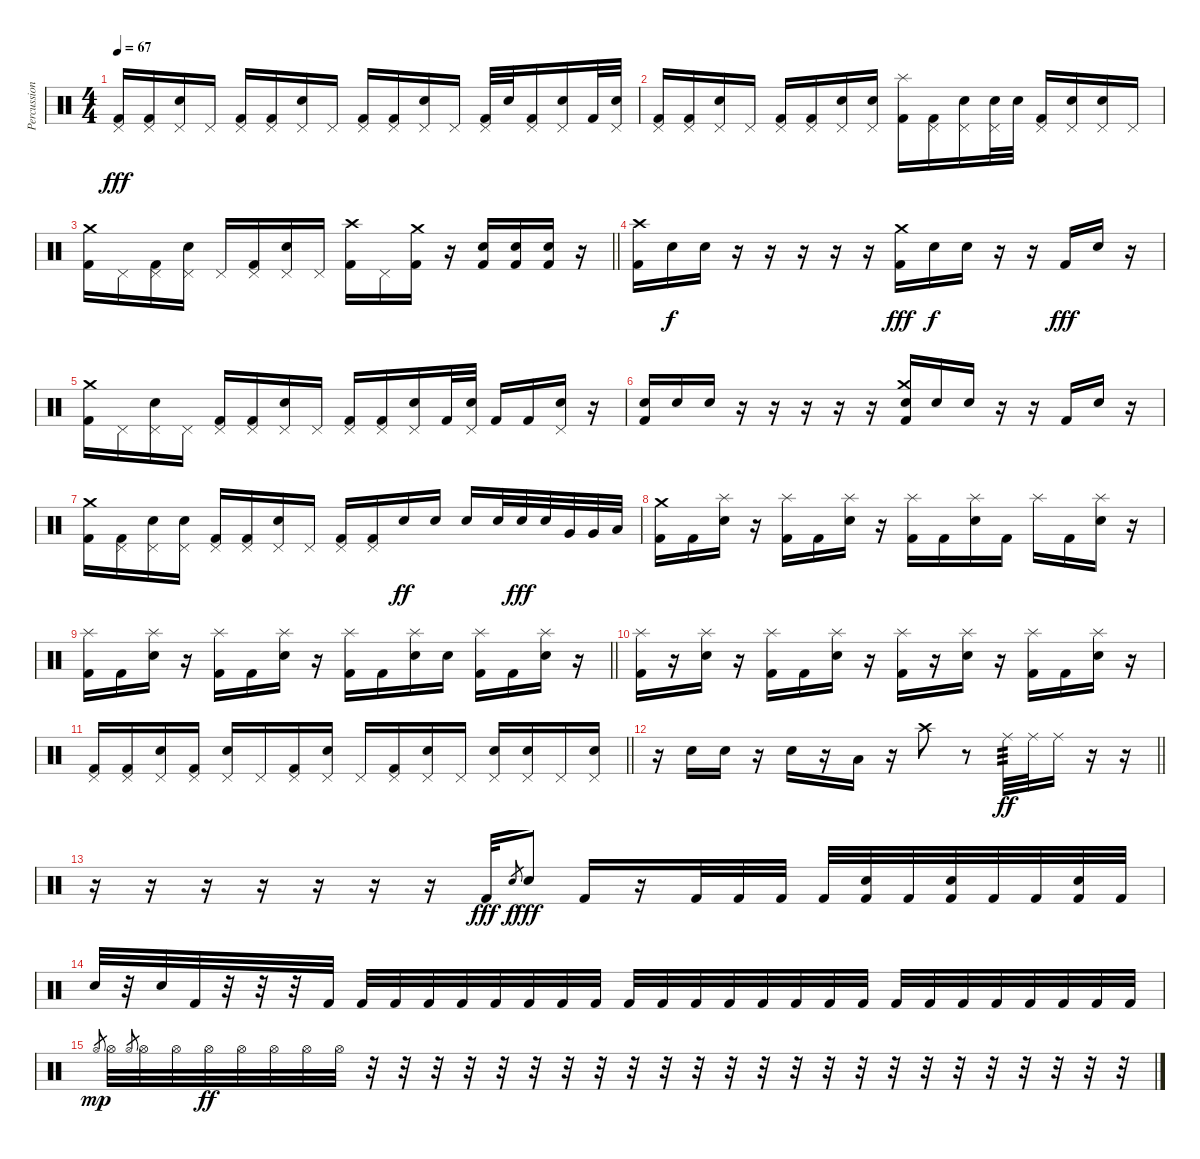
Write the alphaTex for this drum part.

\track ("Percussion" "Percussion") {instrument percussion}
\staff {score}
\articulation defaults
\ts (4 4)
\tempo 67
\clef neutral
\ks c
("Pedal Hi-Hat (hit)" "Kick (hit) 2").16{dy fff} ("Pedal Hi-Hat (hit)" "Kick (hit) 2").16 ("Pedal Hi-Hat (hit)" "Electric Snare (hit)").16 "Pedal Hi-Hat (hit)".16 ("Pedal Hi-Hat (hit)" "Kick (hit) 2").16 ("Pedal Hi-Hat (hit)" "Kick (hit) 2").16 ("Pedal Hi-Hat (hit)" "Electric Snare (hit)").16 "Pedal Hi-Hat (hit)".16 ("Pedal Hi-Hat (hit)" "Kick (hit) 2").16 ("Pedal Hi-Hat (hit)" "Kick (hit) 2").16 ("Pedal Hi-Hat (hit)" "Electric Snare (hit)").16 "Pedal Hi-Hat (hit)".16 ("Pedal Hi-Hat (hit)" "Kick (hit) 2").32 "Electric Snare (hit)".32 ("Pedal Hi-Hat (hit)" "Kick (hit) 2").16 ("Pedal Hi-Hat (hit)" "Electric Snare (hit)").16 "Kick (hit) 2".32 ("Pedal Hi-Hat (hit)" "Electric Snare (hit)").32 |
("Pedal Hi-Hat (hit)" "Kick (hit) 2").16 ("Pedal Hi-Hat (hit)" "Kick (hit) 2").16 ("Pedal Hi-Hat (hit)" "Electric Snare (hit)").16 "Pedal Hi-Hat (hit)".16 ("Pedal Hi-Hat (hit)" "Kick (hit) 2").16 ("Pedal Hi-Hat (hit)" "Kick (hit) 2").16 ("Pedal Hi-Hat (hit)" "Electric Snare (hit)").16 ("Pedal Hi-Hat (hit)" "Electric Snare (hit)").16 ("Splash (hit)" "Kick (hit) 2").16 ("Pedal Hi-Hat (hit)" "Kick (hit) 2").16 ("Pedal Hi-Hat (hit)" "Electric Snare (hit)").16 ("Pedal Hi-Hat (hit)" "Electric Snare (hit)").32 "Electric Snare (hit)".32 ("Pedal Hi-Hat (hit)" "Kick (hit) 2").16 ("Pedal Hi-Hat (hit)" "Electric Snare (hit)").16 ("Pedal Hi-Hat (hit)" "Electric Snare (hit)").16 "Pedal Hi-Hat (hit)".16 |
\barLineRight lightlight
("Crash medium (hit)" "Kick (hit) 2").16 "Pedal Hi-Hat (hit)".16 ("Pedal Hi-Hat (hit)" "Kick (hit) 2").16 ("Pedal Hi-Hat (hit)" "Electric Snare (hit)").16 "Pedal Hi-Hat (hit)".16 ("Pedal Hi-Hat (hit)" "Kick (hit) 2").16 ("Pedal Hi-Hat (hit)" "Electric Snare (hit)").16 "Pedal Hi-Hat (hit)".16 ("Crash high (hit)" "Kick (hit) 2").16 "Pedal Hi-Hat (hit)".16 ("Crash medium (hit)" "Kick (hit) 2").16 r.16 ("Electric Snare (hit)" "Kick (hit) 2").16 ("Electric Snare (hit)" "Kick (hit) 2").16 ("Electric Snare (hit)" "Kick (hit) 2").16 r.16 |
\section ("" "")
("Crash high (hit)" "Kick (hit) 2").16 "Electric Snare (hit)".16{dy f} "Electric Snare (hit)".16 r.16 r.16 r.16 r.16 r.16 ("Crash medium (hit)" "Kick (hit) 2").16{dy fff} "Electric Snare (hit)".16{dy f} "Electric Snare (hit)".16 r.16 r.16 "Kick (hit) 2".16{dy fff} "Electric Snare (hit)".16 r.16 |
("Crash medium (hit)" "Kick (hit) 2").16 "Pedal Hi-Hat (hit)".16 ("Pedal Hi-Hat (hit)" "Electric Snare (hit)").16 "Pedal Hi-Hat (hit)".16 ("Pedal Hi-Hat (hit)" "Kick (hit) 2").16 ("Pedal Hi-Hat (hit)" "Kick (hit) 2").16 ("Pedal Hi-Hat (hit)" "Electric Snare (hit)").16 "Pedal Hi-Hat (hit)".16 ("Pedal Hi-Hat (hit)" "Kick (hit) 2").16 ("Pedal Hi-Hat (hit)" "Kick (hit) 2").16 ("Pedal Hi-Hat (hit)" "Electric Snare (hit)").16 "Kick (hit) 2".32 ("Pedal Hi-Hat (hit)" "Electric Snare (hit)").32 "Kick (hit) 2".16 "Kick (hit) 2".16 ("Pedal Hi-Hat (hit)" "Electric Snare (hit)").16 r.16 |
("Snare (hit) 2" "Kick (hit) 2").16 "Snare (hit) 2".16 "Snare (hit) 2".16 r.16 r.16 r.16 r.16 r.16 ("Crash medium (hit)" "Snare (hit) 2" "Kick (hit) 2").16 "Snare (hit) 2".16 "Snare (hit) 2".16 r.16 r.16 "Kick (hit) 2".16 "Snare (hit) 2".16 r.16 |
("Crash medium (hit)" "Kick (hit) 2").16 ("Pedal Hi-Hat (hit)" "Kick (hit) 2").16 ("Pedal Hi-Hat (hit)" "Electric Snare (hit)").16 ("Pedal Hi-Hat (hit)" "Electric Snare (hit)").16 ("Pedal Hi-Hat (hit)" "Kick (hit) 2").16 ("Pedal Hi-Hat (hit)" "Kick (hit) 2").16 ("Pedal Hi-Hat (hit)" "Electric Snare (hit)").16 "Pedal Hi-Hat (hit)".16 ("Pedal Hi-Hat (hit)" "Kick (hit) 2").16 ("Pedal Hi-Hat (hit)" "Kick (hit) 2").16 "Electric Snare (hit)".16{dy ff} "Electric Snare (hit)".16 "Electric Snare (hit)".16 "Electric Snare (hit)".32 "Electric Snare (hit)".32{dy fff} "Electric Snare (hit)".32 "Very Low Tom (hit)".32 "Very Low Tom (hit)".32 "Low Tom (hit)".32 |
("Crash medium (hit)" "Kick (hit) 2").16 "Kick (hit) 2".16 ("Splash (hit)" "Electric Snare (hit)").16 r.16 ("Splash (hit)" "Kick (hit) 2").16 "Kick (hit) 2".16 ("Splash (hit)" "Electric Snare (hit)").16 r.16 ("Splash (hit)" "Kick (hit) 2").16 "Kick (hit) 2".16 ("Splash (hit)" "Electric Snare (hit)").16 "Kick (hit) 2".16 "Splash (hit)".16 "Kick (hit) 2".16 ("Splash (hit)" "Electric Snare (hit)").16 r.16 |
\barLineRight lightlight
("Splash (hit)" "Kick (hit) 2").16 "Kick (hit) 2".16 ("Splash (hit)" "Electric Snare (hit)").16 r.16 ("Splash (hit)" "Kick (hit) 2").16 "Kick (hit) 2".16 ("Splash (hit)" "Electric Snare (hit)").16 r.16 ("Splash (hit)" "Kick (hit) 2").16 "Kick (hit) 2".16 ("Splash (hit)" "Electric Snare (hit)").16 "Electric Snare (hit)".16 ("Splash (hit)" "Kick (hit) 2").16 "Kick (hit) 2".16 ("Splash (hit)" "Electric Snare (hit)").16 r.16 |
("Splash (hit)" "Kick (hit) 2").16 r.16 ("Splash (hit)" "Electric Snare (hit)").16 r.16 ("Splash (hit)" "Kick (hit) 2").16 "Kick (hit) 2".16 ("Splash (hit)" "Electric Snare (hit)").16 r.16 ("Splash (hit)" "Kick (hit) 2").16 r.16 ("Splash (hit)" "Electric Snare (hit)").16 r.16 ("Splash (hit)" "Kick (hit) 2").16 "Kick (hit) 2".16 ("Splash (hit)" "Electric Snare (hit)").16 r.16 |
\barLineRight lightlight
("Pedal Hi-Hat (hit)" "Kick (hit) 2").16 ("Pedal Hi-Hat (hit)" "Kick (hit) 2").16 ("Pedal Hi-Hat (hit)" "Electric Snare (hit)").16 ("Pedal Hi-Hat (hit)" "Kick (hit) 2").16 ("Pedal Hi-Hat (hit)" "Electric Snare (hit)").16 "Pedal Hi-Hat (hit)".16 ("Pedal Hi-Hat (hit)" "Kick (hit) 2").16 ("Pedal Hi-Hat (hit)" "Electric Snare (hit)").16 "Pedal Hi-Hat (hit)".16 ("Pedal Hi-Hat (hit)" "Kick (hit) 2").16 ("Pedal Hi-Hat (hit)" "Electric Snare (hit)").16 "Pedal Hi-Hat (hit)".16 ("Pedal Hi-Hat (hit)" "Electric Snare (hit)").16 ("Pedal Hi-Hat (hit)" "Electric Snare (hit)").16 "Pedal Hi-Hat (hit)".16 ("Pedal Hi-Hat (hit)" "Electric Snare (hit)").16 |
\barLineRight lightlight
r.16 "Electric Snare (hit)".16 "Electric Snare (hit)".16 r.16 "Electric Snare (hit)".16 r.16 "Low Tom (hit)".16 r.16 "Crash high (hit)".8 r.8 "Ride (middle)".32{tp 3 dy ff} "Ride (middle)".32 "Ride (middle)".16 r.16 r.16 |
r.16 r.16 r.16 r.16 r.16 r.16 r.16 "Kick (hit) 2".32{dy fff} "Snare (hit) 2".8{gr dy f} "Snare (hit) 2".16{dy fff} "Kick (hit) 2".16 r.16 "Kick (hit) 2".32 "Kick (hit) 2".32 "Kick (hit) 2".32 "Kick (hit) 2".32 ("Snare (hit) 2" "Kick (hit) 2").32 "Kick (hit) 2".32 ("Snare (hit) 2" "Kick (hit) 2").32 "Kick (hit) 2".32 "Kick (hit) 2".32 ("Snare (hit) 2" "Kick (hit) 2").32 "Kick (hit) 2".32 |
"Snare (hit) 2".32 r.32 "Snare (hit) 2".32 "Kick (hit) 2".32 r.32 r.32 r.32 "Kick (hit) 2".32 "Kick (hit) 2".32 "Kick (hit) 2".32 "Kick (hit) 2".32 "Kick (hit) 2".32 "Kick (hit) 2".32 "Kick (hit) 2".32 "Kick (hit) 2".32 "Kick (hit) 2".32 "Kick (hit) 2".32 "Kick (hit) 2".32 "Kick (hit) 2".32 "Kick (hit) 2".32 "Kick (hit) 2".32 "Kick (hit) 2".32 "Kick (hit) 2".32 "Kick (hit) 2".32 "Kick (hit) 2".32 "Kick (hit) 2".32 "Kick (hit) 2".32 "Kick (hit) 2".32 "Kick (hit) 2".32 "Kick (hit) 2".32 "Kick (hit) 2".32 "Kick (hit) 2".32 |
"Hi-Hat (open)".8{gr dy mp} "Hi-Hat (open)".32 "Hi-Hat (open)".8{gr} "Hi-Hat (open)".32 "Hi-Hat (open)".32 "Hi-Hat (open)".32{dy ff} "Hi-Hat (open)".32 "Hi-Hat (open)".32 "Hi-Hat (open)".32 "Hi-Hat (open)".32 r.32 r.32 r.32 r.32 r.32 r.32 r.32 r.32 r.32 r.32 r.32 r.32 r.32 r.32 r.32 r.32 r.32 r.32 r.32 r.32 r.32 r.32 r.32 r.32
